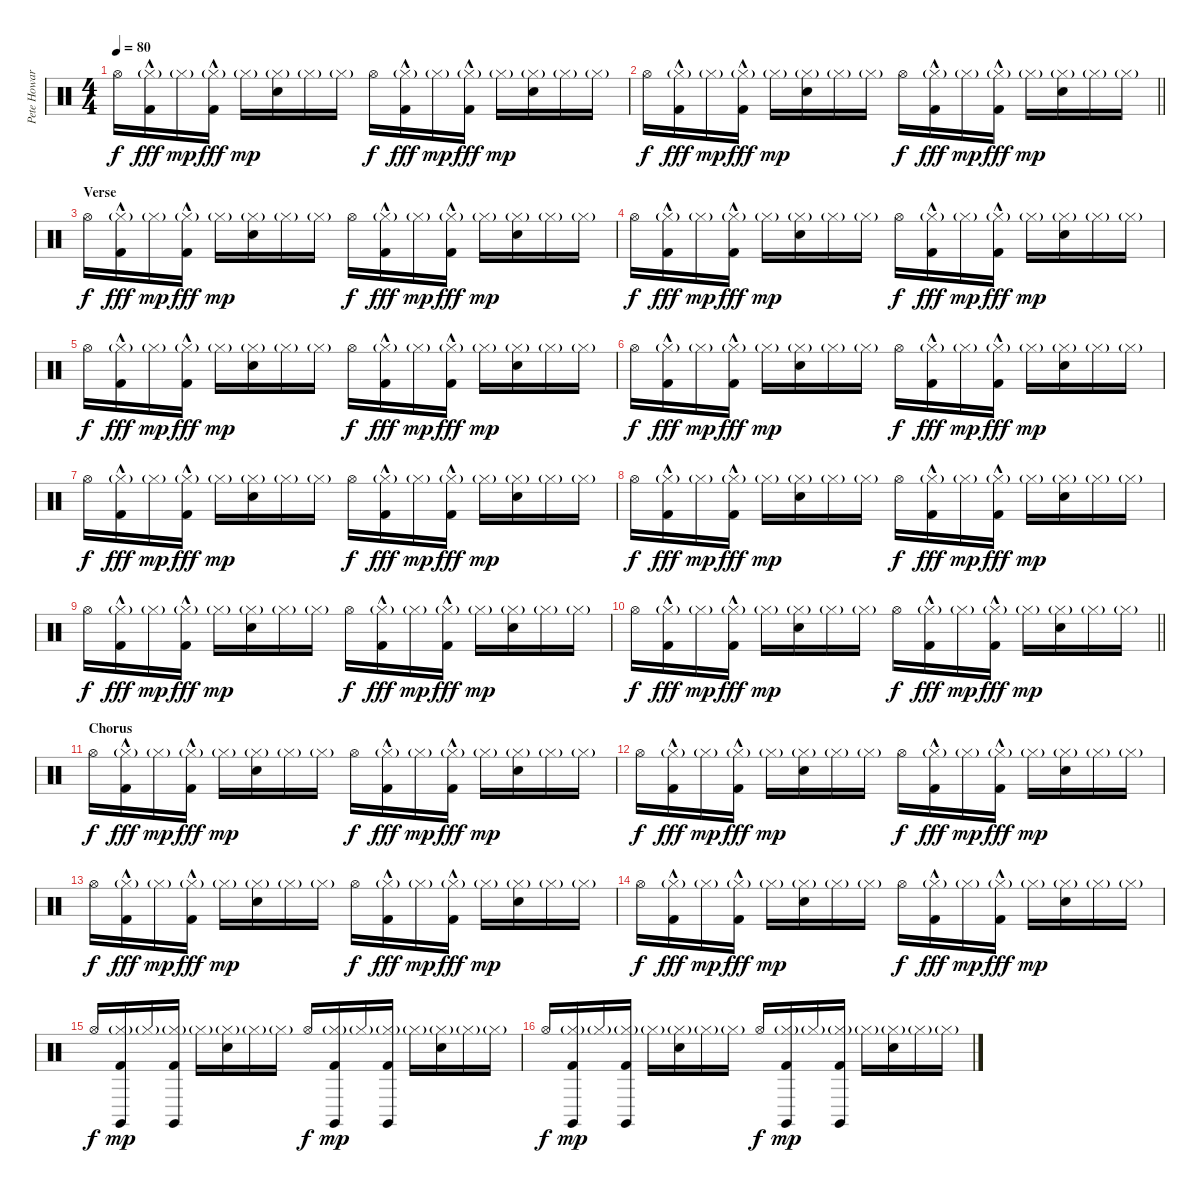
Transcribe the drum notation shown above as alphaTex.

\track ("Pete Howard - Drums" "Pete Howar") {instrument percussion}
\staff {score}
\articulation defaults
\ts (4 4)
\tempo 80
\clef neutral
\ks c "Hi-Hat (open)".16{dy f}
("Hi-Hat (closed)"{g} "Kick (hit) 2"{hac}).16{dy fff} "Hi-Hat (closed)"{g}.16{dy mp} ("Hi-Hat (closed)"{g} "Kick (hit) 2"{hac}).16{dy fff} "Hi-Hat (closed)"{g}.16{dy mp} ("Hi-Hat (closed)"{g} "Electric Snare (hit)").16 "Hi-Hat (closed)"{g}.16 "Hi-Hat (closed)"{g}.16 "Hi-Hat (open)".16{dy f} ("Hi-Hat (closed)"{g} "Kick (hit) 2"{hac}).16{dy fff} "Hi-Hat (closed)"{g}.16{dy mp} ("Hi-Hat (closed)"{g} "Kick (hit) 2"{hac}).16{dy fff} "Hi-Hat (closed)"{g}.16{dy mp} ("Hi-Hat (closed)"{g} "Electric Snare (hit)").16 "Hi-Hat (closed)"{g}.16 "Hi-Hat (closed)"{g}.16 |
\barLineRight lightlight "Hi-Hat (open)".16{dy f}
("Hi-Hat (closed)"{g} "Kick (hit) 2"{hac}).16{dy fff} "Hi-Hat (closed)"{g}.16{dy mp} ("Hi-Hat (closed)"{g} "Kick (hit) 2"{hac}).16{dy fff} "Hi-Hat (closed)"{g}.16{dy mp} ("Hi-Hat (closed)"{g} "Electric Snare (hit)").16 "Hi-Hat (closed)"{g}.16 "Hi-Hat (closed)"{g}.16 "Hi-Hat (open)".16{dy f} ("Hi-Hat (closed)"{g} "Kick (hit) 2"{hac}).16{dy fff} "Hi-Hat (closed)"{g}.16{dy mp} ("Hi-Hat (closed)"{g} "Kick (hit) 2"{hac}).16{dy fff} "Hi-Hat (closed)"{g}.16{dy mp} ("Hi-Hat (closed)"{g} "Electric Snare (hit)").16 "Hi-Hat (closed)"{g}.16 "Hi-Hat (closed)"{g}.16 |
\section ("" "Verse")
"Hi-Hat (open)".16{dy f} ("Hi-Hat (closed)"{g} "Kick (hit) 2"{hac}).16{dy fff} "Hi-Hat (closed)"{g}.16{dy mp} ("Hi-Hat (closed)"{g} "Kick (hit) 2"{hac}).16{dy fff} "Hi-Hat (closed)"{g}.16{dy mp} ("Hi-Hat (closed)"{g} "Electric Snare (hit)").16 "Hi-Hat (closed)"{g}.16 "Hi-Hat (closed)"{g}.16 "Hi-Hat (open)".16{dy f} ("Hi-Hat (closed)"{g} "Kick (hit) 2"{hac}).16{dy fff} "Hi-Hat (closed)"{g}.16{dy mp} ("Hi-Hat (closed)"{g} "Kick (hit) 2"{hac}).16{dy fff} "Hi-Hat (closed)"{g}.16{dy mp} ("Hi-Hat (closed)"{g} "Electric Snare (hit)").16 "Hi-Hat (closed)"{g}.16 "Hi-Hat (closed)"{g}.16 |
"Hi-Hat (open)".16{dy f} ("Hi-Hat (closed)"{g} "Kick (hit) 2"{hac}).16{dy fff} "Hi-Hat (closed)"{g}.16{dy mp} ("Hi-Hat (closed)"{g} "Kick (hit) 2"{hac}).16{dy fff} "Hi-Hat (closed)"{g}.16{dy mp} ("Hi-Hat (closed)"{g} "Electric Snare (hit)").16 "Hi-Hat (closed)"{g}.16 "Hi-Hat (closed)"{g}.16 "Hi-Hat (open)".16{dy f} ("Hi-Hat (closed)"{g} "Kick (hit) 2"{hac}).16{dy fff} "Hi-Hat (closed)"{g}.16{dy mp} ("Hi-Hat (closed)"{g} "Kick (hit) 2"{hac}).16{dy fff} "Hi-Hat (closed)"{g}.16{dy mp} ("Hi-Hat (closed)"{g} "Electric Snare (hit)").16 "Hi-Hat (closed)"{g}.16 "Hi-Hat (closed)"{g}.16 |
"Hi-Hat (open)".16{dy f} ("Hi-Hat (closed)"{g} "Kick (hit) 2"{hac}).16{dy fff} "Hi-Hat (closed)"{g}.16{dy mp} ("Hi-Hat (closed)"{g} "Kick (hit) 2"{hac}).16{dy fff} "Hi-Hat (closed)"{g}.16{dy mp} ("Hi-Hat (closed)"{g} "Electric Snare (hit)").16 "Hi-Hat (closed)"{g}.16 "Hi-Hat (closed)"{g}.16 "Hi-Hat (open)".16{dy f} ("Hi-Hat (closed)"{g} "Kick (hit) 2"{hac}).16{dy fff} "Hi-Hat (closed)"{g}.16{dy mp} ("Hi-Hat (closed)"{g} "Kick (hit) 2"{hac}).16{dy fff} "Hi-Hat (closed)"{g}.16{dy mp} ("Hi-Hat (closed)"{g} "Electric Snare (hit)").16 "Hi-Hat (closed)"{g}.16 "Hi-Hat (closed)"{g}.16 |
"Hi-Hat (open)".16{dy f} ("Hi-Hat (closed)"{g} "Kick (hit) 2"{hac}).16{dy fff} "Hi-Hat (closed)"{g}.16{dy mp} ("Hi-Hat (closed)"{g} "Kick (hit) 2"{hac}).16{dy fff} "Hi-Hat (closed)"{g}.16{dy mp} ("Hi-Hat (closed)"{g} "Electric Snare (hit)").16 "Hi-Hat (closed)"{g}.16 "Hi-Hat (closed)"{g}.16 "Hi-Hat (open)".16{dy f} ("Hi-Hat (closed)"{g} "Kick (hit) 2"{hac}).16{dy fff} "Hi-Hat (closed)"{g}.16{dy mp} ("Hi-Hat (closed)"{g} "Kick (hit) 2"{hac}).16{dy fff} "Hi-Hat (closed)"{g}.16{dy mp} ("Hi-Hat (closed)"{g} "Electric Snare (hit)").16 "Hi-Hat (closed)"{g}.16 "Hi-Hat (closed)"{g}.16 |
"Hi-Hat (open)".16{dy f} ("Hi-Hat (closed)"{g} "Kick (hit) 2"{hac}).16{dy fff} "Hi-Hat (closed)"{g}.16{dy mp} ("Hi-Hat (closed)"{g} "Kick (hit) 2"{hac}).16{dy fff} "Hi-Hat (closed)"{g}.16{dy mp} ("Hi-Hat (closed)"{g} "Electric Snare (hit)").16 "Hi-Hat (closed)"{g}.16 "Hi-Hat (closed)"{g}.16 "Hi-Hat (open)".16{dy f} ("Hi-Hat (closed)"{g} "Kick (hit) 2"{hac}).16{dy fff} "Hi-Hat (closed)"{g}.16{dy mp} ("Hi-Hat (closed)"{g} "Kick (hit) 2"{hac}).16{dy fff} "Hi-Hat (closed)"{g}.16{dy mp} ("Hi-Hat (closed)"{g} "Electric Snare (hit)").16 "Hi-Hat (closed)"{g}.16 "Hi-Hat (closed)"{g}.16 |
"Hi-Hat (open)".16{dy f} ("Hi-Hat (closed)"{g} "Kick (hit) 2"{hac}).16{dy fff} "Hi-Hat (closed)"{g}.16{dy mp} ("Hi-Hat (closed)"{g} "Kick (hit) 2"{hac}).16{dy fff} "Hi-Hat (closed)"{g}.16{dy mp} ("Hi-Hat (closed)"{g} "Electric Snare (hit)").16 "Hi-Hat (closed)"{g}.16 "Hi-Hat (closed)"{g}.16 "Hi-Hat (open)".16{dy f} ("Hi-Hat (closed)"{g} "Kick (hit) 2"{hac}).16{dy fff} "Hi-Hat (closed)"{g}.16{dy mp} ("Hi-Hat (closed)"{g} "Kick (hit) 2"{hac}).16{dy fff} "Hi-Hat (closed)"{g}.16{dy mp} ("Hi-Hat (closed)"{g} "Electric Snare (hit)").16 "Hi-Hat (closed)"{g}.16 "Hi-Hat (closed)"{g}.16 |
"Hi-Hat (open)".16{dy f} ("Hi-Hat (closed)"{g} "Kick (hit) 2"{hac}).16{dy fff} "Hi-Hat (closed)"{g}.16{dy mp} ("Hi-Hat (closed)"{g} "Kick (hit) 2"{hac}).16{dy fff} "Hi-Hat (closed)"{g}.16{dy mp} ("Hi-Hat (closed)"{g} "Electric Snare (hit)").16 "Hi-Hat (closed)"{g}.16 "Hi-Hat (closed)"{g}.16 "Hi-Hat (open)".16{dy f} ("Hi-Hat (closed)"{g} "Kick (hit) 2"{hac}).16{dy fff} "Hi-Hat (closed)"{g}.16{dy mp} ("Hi-Hat (closed)"{g} "Kick (hit) 2"{hac}).16{dy fff} "Hi-Hat (closed)"{g}.16{dy mp} ("Hi-Hat (closed)"{g} "Electric Snare (hit)").16 "Hi-Hat (closed)"{g}.16 "Hi-Hat (closed)"{g}.16 |
\barLineRight lightlight "Hi-Hat (open)".16{dy f}
("Hi-Hat (closed)"{g} "Kick (hit) 2"{hac}).16{dy fff} "Hi-Hat (closed)"{g}.16{dy mp} ("Hi-Hat (closed)"{g} "Kick (hit) 2"{hac}).16{dy fff} "Hi-Hat (closed)"{g}.16{dy mp} ("Hi-Hat (closed)"{g} "Electric Snare (hit)").16 "Hi-Hat (closed)"{g}.16 "Hi-Hat (closed)"{g}.16 "Hi-Hat (open)".16{dy f} ("Hi-Hat (closed)"{g} "Kick (hit) 2"{hac}).16{dy fff} "Hi-Hat (closed)"{g}.16{dy mp} ("Hi-Hat (closed)"{g} "Kick (hit) 2"{hac}).16{dy fff} "Hi-Hat (closed)"{g}.16{dy mp} ("Hi-Hat (closed)"{g} "Electric Snare (hit)").16 "Hi-Hat (closed)"{g}.16 "Hi-Hat (closed)"{g}.16 |
\section ("" "Chorus")
"Hi-Hat (open)".16{dy f} ("Hi-Hat (closed)"{g} "Kick (hit) 2"{hac}).16{dy fff} "Hi-Hat (closed)"{g}.16{dy mp} ("Hi-Hat (closed)"{g} "Kick (hit) 2"{hac}).16{dy fff} "Hi-Hat (closed)"{g}.16{dy mp} ("Hi-Hat (closed)"{g} "Electric Snare (hit)").16 "Hi-Hat (closed)"{g}.16 "Hi-Hat (closed)"{g}.16 "Hi-Hat (open)".16{dy f} ("Hi-Hat (closed)"{g} "Kick (hit) 2"{hac}).16{dy fff} "Hi-Hat (closed)"{g}.16{dy mp} ("Hi-Hat (closed)"{g} "Kick (hit) 2"{hac}).16{dy fff} "Hi-Hat (closed)"{g}.16{dy mp} ("Hi-Hat (closed)"{g} "Electric Snare (hit)").16 "Hi-Hat (closed)"{g}.16 "Hi-Hat (closed)"{g}.16 |
"Hi-Hat (open)".16{dy f} ("Hi-Hat (closed)"{g} "Kick (hit) 2"{hac}).16{dy fff} "Hi-Hat (closed)"{g}.16{dy mp} ("Hi-Hat (closed)"{g} "Kick (hit) 2"{hac}).16{dy fff} "Hi-Hat (closed)"{g}.16{dy mp} ("Hi-Hat (closed)"{g} "Electric Snare (hit)").16 "Hi-Hat (closed)"{g}.16 "Hi-Hat (closed)"{g}.16 "Hi-Hat (open)".16{dy f} ("Hi-Hat (closed)"{g} "Kick (hit) 2"{hac}).16{dy fff} "Hi-Hat (closed)"{g}.16{dy mp} ("Hi-Hat (closed)"{g} "Kick (hit) 2"{hac}).16{dy fff} "Hi-Hat (closed)"{g}.16{dy mp} ("Hi-Hat (closed)"{g} "Electric Snare (hit)").16 "Hi-Hat (closed)"{g}.16 "Hi-Hat (closed)"{g}.16 |
"Hi-Hat (open)".16{dy f} ("Hi-Hat (closed)"{g} "Kick (hit) 2"{hac}).16{dy fff} "Hi-Hat (closed)"{g}.16{dy mp} ("Hi-Hat (closed)"{g} "Kick (hit) 2"{hac}).16{dy fff} "Hi-Hat (closed)"{g}.16{dy mp} ("Hi-Hat (closed)"{g} "Electric Snare (hit)").16 "Hi-Hat (closed)"{g}.16 "Hi-Hat (closed)"{g}.16 "Hi-Hat (open)".16{dy f} ("Hi-Hat (closed)"{g} "Kick (hit) 2"{hac}).16{dy fff} "Hi-Hat (closed)"{g}.16{dy mp} ("Hi-Hat (closed)"{g} "Kick (hit) 2"{hac}).16{dy fff} "Hi-Hat (closed)"{g}.16{dy mp} ("Hi-Hat (closed)"{g} "Electric Snare (hit)").16 "Hi-Hat (closed)"{g}.16 "Hi-Hat (closed)"{g}.16 |
"Hi-Hat (open)".16{dy f} ("Hi-Hat (closed)"{g} "Kick (hit) 2"{hac}).16{dy fff} "Hi-Hat (closed)"{g}.16{dy mp} ("Hi-Hat (closed)"{g} "Kick (hit) 2"{hac}).16{dy fff} "Hi-Hat (closed)"{g}.16{dy mp} ("Hi-Hat (closed)"{g} "Electric Snare (hit)").16 "Hi-Hat (closed)"{g}.16 "Hi-Hat (closed)"{g}.16 "Hi-Hat (open)".16{dy f} ("Hi-Hat (closed)"{g} "Kick (hit) 2"{hac}).16{dy fff} "Hi-Hat (closed)"{g}.16{dy mp} ("Hi-Hat (closed)"{g} "Kick (hit) 2"{hac}).16{dy fff} "Hi-Hat (closed)"{g}.16{dy mp} ("Hi-Hat (closed)"{g} "Electric Snare (hit)").16 "Hi-Hat (closed)"{g}.16 "Hi-Hat (closed)"{g}.16 |
"Hi-Hat (open)".16{dy f} ("Hi-Hat (closed)"{g} "Claves (hit)" "Kick (hit) 2").16{dy mp} "Hi-Hat (closed)"{g}.16 ("Hi-Hat (closed)"{g} "Claves (hit)" "Kick (hit) 2").16 "Hi-Hat (closed)"{g}.16 ("Hi-Hat (closed)"{g} "Electric Snare (hit)").16 "Hi-Hat (closed)"{g}.16 "Hi-Hat (closed)"{g}.16 "Hi-Hat (open)".16{dy f} ("Hi-Hat (closed)"{g} "Claves (hit)" "Kick (hit) 2").16{dy mp} "Hi-Hat (closed)"{g}.16 ("Hi-Hat (closed)"{g} "Claves (hit)" "Kick (hit) 2").16 "Hi-Hat (closed)"{g}.16 ("Hi-Hat (closed)"{g} "Electric Snare (hit)").16 "Hi-Hat (closed)"{g}.16 "Hi-Hat (closed)"{g}.16 |
"Hi-Hat (open)".16{dy f} ("Hi-Hat (closed)"{g} "Claves (hit)" "Kick (hit) 2").16{dy mp} "Hi-Hat (closed)"{g}.16 ("Hi-Hat (closed)"{g} "Claves (hit)" "Kick (hit) 2").16 "Hi-Hat (closed)"{g}.16 ("Hi-Hat (closed)"{g} "Electric Snare (hit)").16 "Hi-Hat (closed)"{g}.16 "Hi-Hat (closed)"{g}.16 "Hi-Hat (open)".16{dy f} ("Hi-Hat (closed)"{g} "Claves (hit)" "Kick (hit) 2").16{dy mp} "Hi-Hat (closed)"{g}.16 ("Hi-Hat (closed)"{g} "Claves (hit)" "Kick (hit) 2").16 "Hi-Hat (closed)"{g}.16 ("Hi-Hat (closed)"{g} "Electric Snare (hit)").16 "Hi-Hat (closed)"{g}.16 "Hi-Hat (closed)"{g}.16
